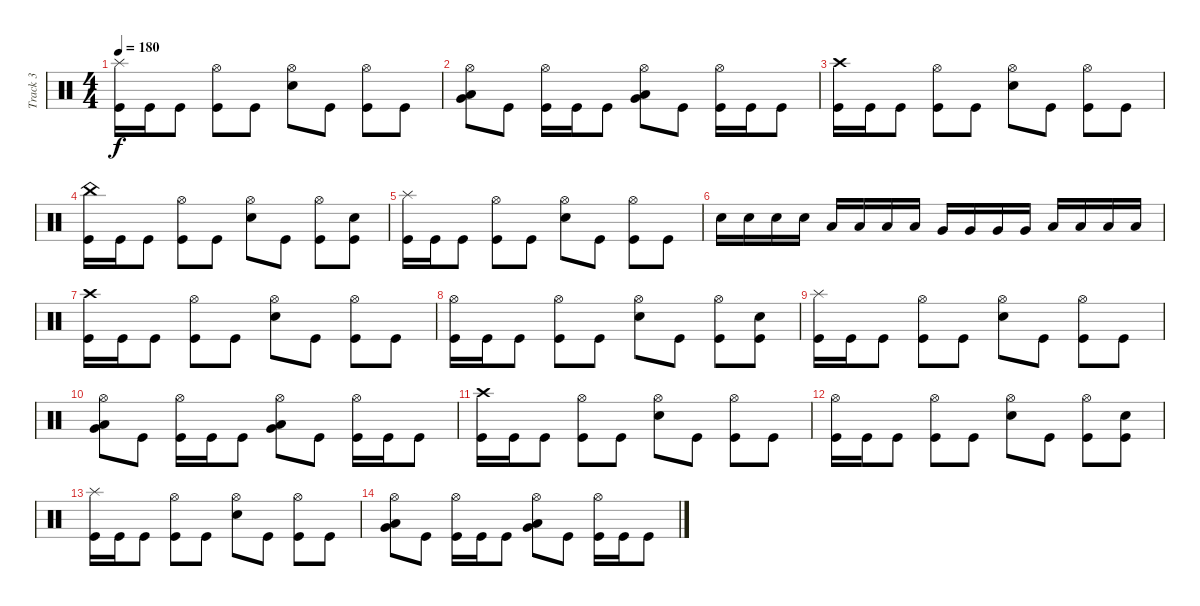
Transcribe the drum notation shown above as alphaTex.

\track ("Track 3" "Track 3") {instrument percussion}
\staff {score}
\articulation defaults
\ts (4 4)
\tempo 180
\clef neutral
\ks c
("Splash (hit)" "Kick (hit)").16{dy f} "Kick (hit)".16 "Kick (hit)".8 ("Hi-Hat (open)" "Kick (hit)").8 "Kick (hit)".8 ("Hi-Hat (open)" "Electric Snare (hit)").8 "Kick (hit)".8 ("Hi-Hat (open)" "Kick (hit)").8 "Kick (hit)".8 |
("Hi-Hat (open)" "Very Low Tom (hit)" "Low Floor Tom (hit)").8 "Kick (hit)".8 ("Hi-Hat (open)" "Kick (hit)").16 "Kick (hit)".16 "Kick (hit)".8 ("Hi-Hat (open)" "Very Low Tom (hit)" "Low Tom (hit)").8 "Kick (hit)".8 ("Hi-Hat (open)" "Kick (hit)").16 "Kick (hit)".16 "Kick (hit)".8 |
("Crash high (hit)" "Kick (hit)").16 "Kick (hit)".16 "Kick (hit)".8 ("Hi-Hat (open)" "Kick (hit)").8 "Kick (hit)".8 ("Hi-Hat (open)" "Electric Snare (hit)").8 "Kick (hit)".8 ("Hi-Hat (open)" "Kick (hit)").8 "Kick (hit)".8 |
("China (hit)" "Kick (hit)").16 "Kick (hit)".16 "Kick (hit)".8 ("Hi-Hat (open)" "Kick (hit)").8 "Kick (hit)".8 ("Hi-Hat (open)" "Electric Snare (hit)").8 "Kick (hit)".8 ("Hi-Hat (open)" "Kick (hit)").8 ("Electric Snare (hit)" "Kick (hit)").8 |
("Splash (hit)" "Kick (hit)").16 "Kick (hit)".16 "Kick (hit)".8 ("Hi-Hat (open)" "Kick (hit)").8 "Kick (hit)".8 ("Hi-Hat (open)" "Electric Snare (hit)").8 "Kick (hit)".8 ("Hi-Hat (open)" "Kick (hit)").8 "Kick (hit)".8 |
"Electric Snare (hit)".16 "Electric Snare (hit)".16 "Electric Snare (hit)".16 "Electric Snare (hit)".16 "Low Tom (hit)".16 "Low Tom (hit)".16 "Low Tom (hit)".16 "Low Tom (hit)".16 "Very Low Tom (hit)".16 "Very Low Tom (hit)".16 "Very Low Tom (hit)".16 "Very Low Tom (hit)".16 "Low Floor Tom (hit)".16 "Low Floor Tom (hit)".16 "Low Floor Tom (hit)".16 "Low Floor Tom (hit)".16 |
("Crash high (hit)" "Kick (hit)").16 "Kick (hit)".16 "Kick (hit)".8 ("Hi-Hat (open)" "Kick (hit)").8 "Kick (hit)".8 ("Hi-Hat (open)" "Electric Snare (hit)").8 "Kick (hit)".8 ("Hi-Hat (open)" "Kick (hit)").8 "Kick (hit)".8 |
("Hi-Hat (open)" "Kick (hit)").16 "Kick (hit)".16 "Kick (hit)".8 ("Hi-Hat (open)" "Kick (hit)").8 "Kick (hit)".8 ("Hi-Hat (open)" "Electric Snare (hit)").8 "Kick (hit)".8 ("Hi-Hat (open)" "Kick (hit)").8 ("Electric Snare (hit)" "Kick (hit)").8 |
("Splash (hit)" "Kick (hit)").16 "Kick (hit)".16 "Kick (hit)".8 ("Hi-Hat (open)" "Kick (hit)").8 "Kick (hit)".8 ("Hi-Hat (open)" "Electric Snare (hit)").8 "Kick (hit)".8 ("Hi-Hat (open)" "Kick (hit)").8 "Kick (hit)".8 |
("Hi-Hat (open)" "Very Low Tom (hit)" "Low Floor Tom (hit)").8 "Kick (hit)".8 ("Hi-Hat (open)" "Kick (hit)").16 "Kick (hit)".16 "Kick (hit)".8 ("Hi-Hat (open)" "Very Low Tom (hit)" "Low Tom (hit)").8 "Kick (hit)".8 ("Hi-Hat (open)" "Kick (hit)").16 "Kick (hit)".16 "Kick (hit)".8 |
("Crash high (hit)" "Kick (hit)").16 "Kick (hit)".16 "Kick (hit)".8 ("Hi-Hat (open)" "Kick (hit)").8 "Kick (hit)".8 ("Hi-Hat (open)" "Electric Snare (hit)").8 "Kick (hit)".8 ("Hi-Hat (open)" "Kick (hit)").8 "Kick (hit)".8 |
("Hi-Hat (open)" "Kick (hit)").16 "Kick (hit)".16 "Kick (hit)".8 ("Hi-Hat (open)" "Kick (hit)").8 "Kick (hit)".8 ("Hi-Hat (open)" "Electric Snare (hit)").8 "Kick (hit)".8 ("Hi-Hat (open)" "Kick (hit)").8 ("Electric Snare (hit)" "Kick (hit)").8 |
("Splash (hit)" "Kick (hit)").16 "Kick (hit)".16 "Kick (hit)".8 ("Hi-Hat (open)" "Kick (hit)").8 "Kick (hit)".8 ("Hi-Hat (open)" "Electric Snare (hit)").8 "Kick (hit)".8 ("Hi-Hat (open)" "Kick (hit)").8 "Kick (hit)".8 |
("Hi-Hat (open)" "Very Low Tom (hit)" "Low Floor Tom (hit)").8 "Kick (hit)".8 ("Hi-Hat (open)" "Kick (hit)").16 "Kick (hit)".16 "Kick (hit)".8 ("Hi-Hat (open)" "Very Low Tom (hit)" "Low Tom (hit)").8 "Kick (hit)".8 ("Hi-Hat (open)" "Kick (hit)").16 "Kick (hit)".16 "Kick (hit)".8
